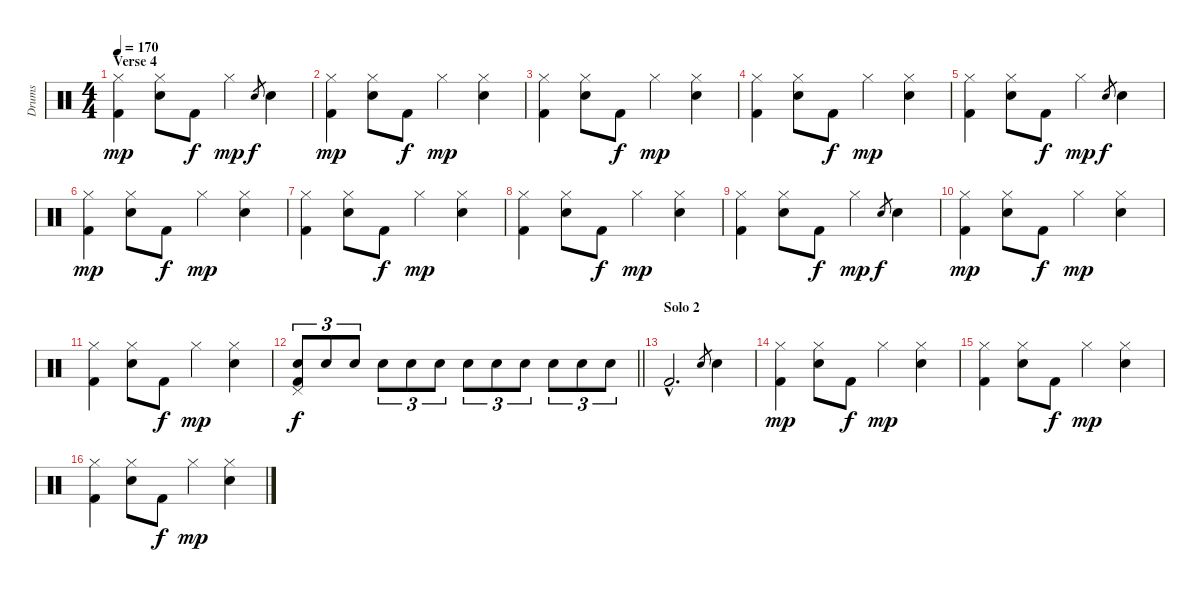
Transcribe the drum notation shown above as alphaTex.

\track ("Drums" "Drums") {instrument percussion}
\staff {score}
\articulation defaults
\ts (4 4)
\section ("" "Verse 4")
\tempo 170
\clef neutral
\ks c
("Hi-Hat (closed)" "Kick (hit) 2").4{dy mp} ("Hi-Hat (closed)" "Electric Snare (hit)").8 "Kick (hit) 2".8{dy f} "Hi-Hat (closed)".4{dy mp} "Electric Snare (hit)".8{gr dy f} "Electric Snare (hit)".4 |
("Hi-Hat (closed)" "Kick (hit) 2").4{dy mp} ("Hi-Hat (closed)" "Electric Snare (hit)").8 "Kick (hit) 2".8{dy f} "Hi-Hat (closed)".4{dy mp} ("Hi-Hat (closed)" "Electric Snare (hit)").4 |
("Hi-Hat (closed)" "Kick (hit) 2").4 ("Hi-Hat (closed)" "Electric Snare (hit)").8 "Kick (hit) 2".8{dy f} "Hi-Hat (closed)".4{dy mp} ("Hi-Hat (closed)" "Electric Snare (hit)").4 |
("Hi-Hat (closed)" "Kick (hit) 2").4 ("Hi-Hat (closed)" "Electric Snare (hit)").8 "Kick (hit) 2".8{dy f} "Hi-Hat (closed)".4{dy mp} ("Hi-Hat (closed)" "Electric Snare (hit)").4 |
("Hi-Hat (closed)" "Kick (hit) 2").4 ("Hi-Hat (closed)" "Electric Snare (hit)").8 "Kick (hit) 2".8{dy f} "Hi-Hat (closed)".4{dy mp} "Electric Snare (hit)".8{gr dy f} "Electric Snare (hit)".4 |
("Hi-Hat (closed)" "Kick (hit) 2").4{dy mp} ("Hi-Hat (closed)" "Electric Snare (hit)").8 "Kick (hit) 2".8{dy f} "Hi-Hat (closed)".4{dy mp} ("Hi-Hat (closed)" "Electric Snare (hit)").4 |
("Hi-Hat (closed)" "Kick (hit) 2").4 ("Hi-Hat (closed)" "Electric Snare (hit)").8 "Kick (hit) 2".8{dy f} "Hi-Hat (closed)".4{dy mp} ("Hi-Hat (closed)" "Electric Snare (hit)").4 |
("Hi-Hat (closed)" "Kick (hit) 2").4 ("Hi-Hat (closed)" "Electric Snare (hit)").8 "Kick (hit) 2".8{dy f} "Hi-Hat (closed)".4{dy mp} ("Hi-Hat (closed)" "Electric Snare (hit)").4 |
("Hi-Hat (closed)" "Kick (hit) 2").4 ("Hi-Hat (closed)" "Electric Snare (hit)").8 "Kick (hit) 2".8{dy f} "Hi-Hat (closed)".4{dy mp} "Electric Snare (hit)".8{gr dy f} "Electric Snare (hit)".4 |
("Hi-Hat (closed)" "Kick (hit) 2").4{dy mp} ("Hi-Hat (closed)" "Electric Snare (hit)").8 "Kick (hit) 2".8{dy f} "Hi-Hat (closed)".4{dy mp} ("Hi-Hat (closed)" "Electric Snare (hit)").4 |
("Hi-Hat (closed)" "Kick (hit) 2").4 ("Hi-Hat (closed)" "Electric Snare (hit)").8 "Kick (hit) 2".8{dy f} "Hi-Hat (closed)".4{dy mp} ("Hi-Hat (closed)" "Electric Snare (hit)").4 |
\barLineRight lightlight
("Pedal Hi-Hat (hit)" "Electric Snare (hit)" "Kick (hit) 2").8{tu (3 2) dy f} "Electric Snare (hit)".8{tu (3 2)} "Electric Snare (hit)".8{tu (3 2)} "Electric Snare (hit)".8{tu (3 2)} "Electric Snare (hit)".8{tu (3 2)} "Electric Snare (hit)".8{tu (3 2)} "Electric Snare (hit)".8{tu (3 2)} "Electric Snare (hit)".8{tu (3 2)} "Electric Snare (hit)".8{tu (3 2)} "Electric Snare (hit)".8{tu (3 2)} "Electric Snare (hit)".8{tu (3 2)} "Electric Snare (hit)".8{tu (3 2)} |
\section ("" "Solo 2")
"Kick (hit) 2"{hac}.2{d} "Snare (hit) 2".8{gr} "Snare (hit) 2".4 |
("Hi-Hat (closed)" "Kick (hit) 2").4{dy mp} ("Hi-Hat (closed)" "Electric Snare (hit)").8 "Kick (hit) 2".8{dy f} "Hi-Hat (closed)".4{dy mp} ("Hi-Hat (closed)" "Electric Snare (hit)").4 |
("Hi-Hat (closed)" "Kick (hit) 2").4 ("Hi-Hat (closed)" "Electric Snare (hit)").8 "Kick (hit) 2".8{dy f} "Hi-Hat (closed)".4{dy mp} ("Hi-Hat (closed)" "Electric Snare (hit)").4 |
("Hi-Hat (closed)" "Kick (hit) 2").4 ("Hi-Hat (closed)" "Electric Snare (hit)").8 "Kick (hit) 2".8{dy f} "Hi-Hat (closed)".4{dy mp} ("Hi-Hat (closed)" "Electric Snare (hit)").4
